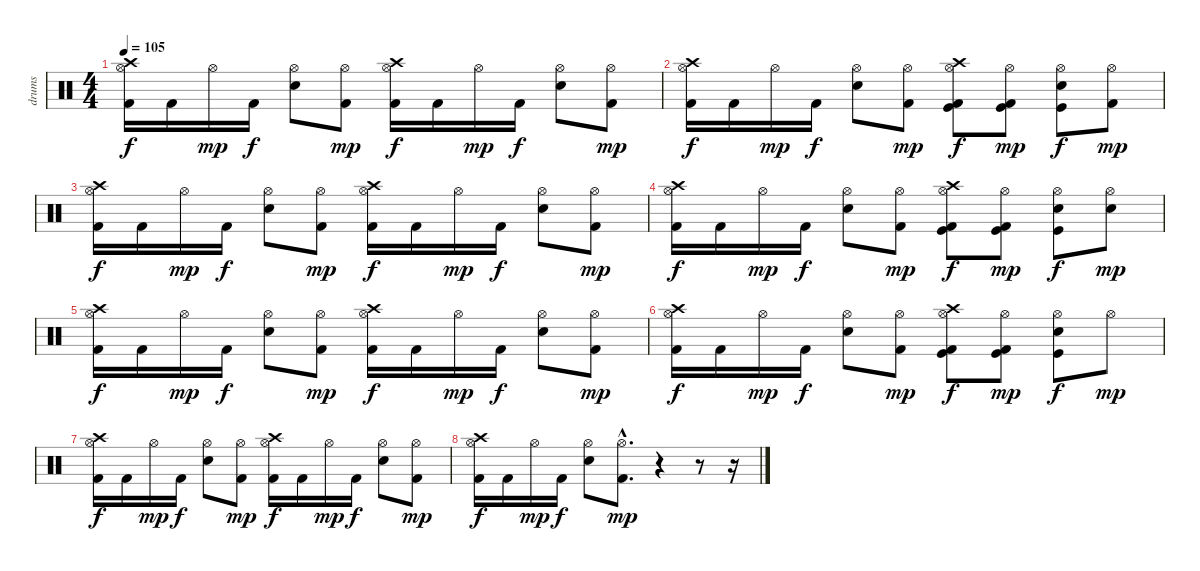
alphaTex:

\track ("drums" "drums") {instrument percussion}
\staff {score}
\articulation defaults
\ts (4 4)
\tempo 105
\clef neutral
\ks c
("Crash high (hit)" "Hi-Hat (open)" "Kick (hit) 2").16{dy f} "Kick (hit) 2".16 "Hi-Hat (open)".16{dy mp} "Kick (hit) 2".16{dy f} ("Snare (hit) 2" "Hi-Hat (open)").8 ("Kick (hit) 2" "Hi-Hat (open)").8{dy mp} ("Kick (hit) 2" "Hi-Hat (open)" "Crash high (hit)").16{dy f} "Kick (hit) 2".16 "Hi-Hat (open)".16{dy mp} "Kick (hit) 2".16{dy f} ("Snare (hit) 2" "Hi-Hat (open)").8 ("Kick (hit) 2" "Hi-Hat (open)").8{dy mp} |
("Kick (hit) 2" "Hi-Hat (open)" "Crash high (hit)").16{dy f} "Kick (hit) 2".16 "Hi-Hat (open)".16{dy mp} "Kick (hit) 2".16{dy f} ("Snare (hit) 2" "Hi-Hat (open)").8 ("Kick (hit) 2" "Hi-Hat (open)").8{dy mp} ("Kick (hit) 2" "Hi-Hat (open)" "Crash high (hit)" "Kick (hit)").8{dy f} ("Kick (hit) 2" "Hi-Hat (open)" "Kick (hit)").8{dy mp} ("Snare (hit) 2" "Hi-Hat (open)" "Kick (hit)").8{dy f} ("Hi-Hat (open)" "Kick (hit) 2").8{dy mp} |
("Crash high (hit)" "Hi-Hat (open)" "Kick (hit) 2").16{dy f} "Kick (hit) 2".16 "Hi-Hat (open)".16{dy mp} "Kick (hit) 2".16{dy f} ("Snare (hit) 2" "Hi-Hat (open)").8 ("Kick (hit) 2" "Hi-Hat (open)").8{dy mp} ("Kick (hit) 2" "Hi-Hat (open)" "Crash high (hit)").16{dy f} "Kick (hit) 2".16 "Hi-Hat (open)".16{dy mp} "Kick (hit) 2".16{dy f} ("Snare (hit) 2" "Hi-Hat (open)").8 ("Kick (hit) 2" "Hi-Hat (open)").8{dy mp} |
("Kick (hit) 2" "Hi-Hat (open)" "Crash high (hit)").16{dy f} "Kick (hit) 2".16 "Hi-Hat (open)".16{dy mp} "Kick (hit) 2".16{dy f} ("Snare (hit) 2" "Hi-Hat (open)").8 ("Kick (hit) 2" "Hi-Hat (open)").8{dy mp} ("Kick (hit) 2" "Hi-Hat (open)" "Crash high (hit)" "Kick (hit)").8{dy f} ("Kick (hit) 2" "Hi-Hat (open)" "Kick (hit)").8{dy mp} ("Snare (hit) 2" "Hi-Hat (open)" "Kick (hit)").8{dy f} ("Hi-Hat (open)" "Snare (hit) 2").8{dy mp} |
("Crash high (hit)" "Hi-Hat (open)" "Kick (hit) 2").16{dy f} "Kick (hit) 2".16 "Hi-Hat (open)".16{dy mp} "Kick (hit) 2".16{dy f} ("Snare (hit) 2" "Hi-Hat (open)").8 ("Kick (hit) 2" "Hi-Hat (open)").8{dy mp} ("Kick (hit) 2" "Hi-Hat (open)" "Crash high (hit)").16{dy f} "Kick (hit) 2".16 "Hi-Hat (open)".16{dy mp} "Kick (hit) 2".16{dy f} ("Snare (hit) 2" "Hi-Hat (open)").8 ("Kick (hit) 2" "Hi-Hat (open)").8{dy mp} |
("Kick (hit) 2" "Hi-Hat (open)" "Crash high (hit)").16{dy f} "Kick (hit) 2".16 "Hi-Hat (open)".16{dy mp} "Kick (hit) 2".16{dy f} ("Snare (hit) 2" "Hi-Hat (open)").8 ("Kick (hit) 2" "Hi-Hat (open)").8{dy mp} ("Kick (hit) 2" "Hi-Hat (open)" "Crash high (hit)" "Kick (hit)").8{dy f} ("Kick (hit) 2" "Hi-Hat (open)" "Kick (hit)").8{dy mp} ("Snare (hit) 2" "Hi-Hat (open)" "Kick (hit)").8{dy f} "Hi-Hat (open)".8{dy mp} |
("Crash high (hit)" "Hi-Hat (open)" "Kick (hit) 2").16{dy f} "Kick (hit) 2".16 "Hi-Hat (open)".16{dy mp} "Kick (hit) 2".16{dy f} ("Snare (hit) 2" "Hi-Hat (open)").8 ("Kick (hit) 2" "Hi-Hat (open)").8{dy mp} ("Kick (hit) 2" "Hi-Hat (open)" "Crash high (hit)").16{dy f} "Kick (hit) 2".16 "Hi-Hat (open)".16{dy mp} "Kick (hit) 2".16{dy f} ("Snare (hit) 2" "Hi-Hat (open)").8 ("Kick (hit) 2" "Hi-Hat (open)").8{dy mp} |
("Kick (hit) 2" "Hi-Hat (open)" "Crash high (hit)").16{dy f} "Kick (hit) 2".16 "Hi-Hat (open)".16{dy mp} "Kick (hit) 2".16{dy f} ("Snare (hit) 2" "Hi-Hat (open)").8 ("Kick (hit) 2" "Hi-Hat (open)"{hac}).8{d dy mp} r.4 r.8 r.16
